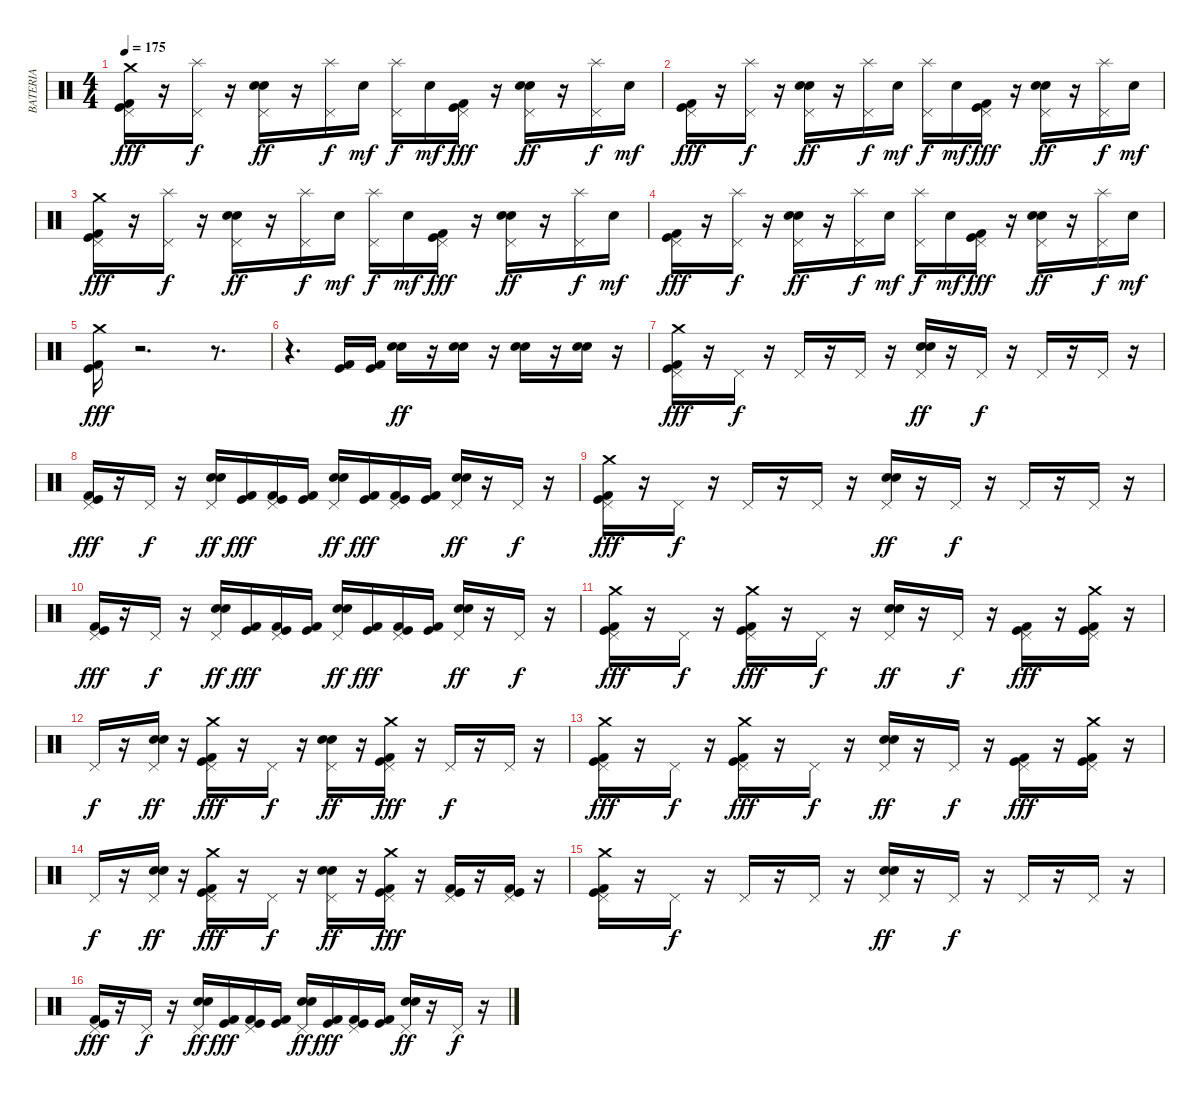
\track ("BATERIA" "BATERIA") {instrument percussion}
\staff {score}
\articulation defaults
\ts (4 4)
\tempo 175
\clef neutral
\ks c
("Pedal Hi-Hat (hit)" "Kick (hit)" "Kick (hit) 2" "Crash medium (hit)").16{dy fff} r.16 ("Pedal Hi-Hat (hit)" "Splash (hit)").16{dy f} r.16 ("Pedal Hi-Hat (hit)" "Snare (hit) 2" "Electric Snare (hit)").16{dy ff} r.16 ("Splash (hit)" "Pedal Hi-Hat (hit)").16{dy f} "Snare (hit) 2".16{dy mf} ("Splash (hit)" "Pedal Hi-Hat (hit)").16{dy f} "Snare (hit) 2".16{dy mf} ("Pedal Hi-Hat (hit)" "Kick (hit)" "Kick (hit) 2").16{dy fff} r.16 ("Pedal Hi-Hat (hit)" "Snare (hit) 2" "Electric Snare (hit)").16{dy ff} r.16 ("Splash (hit)" "Pedal Hi-Hat (hit)").16{dy f} "Snare (hit) 2".16{dy mf} |
("Pedal Hi-Hat (hit)" "Kick (hit)" "Kick (hit) 2").16{dy fff} r.16 ("Pedal Hi-Hat (hit)" "Splash (hit)").16{dy f} r.16 ("Pedal Hi-Hat (hit)" "Snare (hit) 2" "Electric Snare (hit)").16{dy ff} r.16 ("Splash (hit)" "Pedal Hi-Hat (hit)").16{dy f} "Snare (hit) 2".16{dy mf} ("Splash (hit)" "Pedal Hi-Hat (hit)").16{dy f} "Snare (hit) 2".16{dy mf} ("Pedal Hi-Hat (hit)" "Kick (hit)" "Kick (hit) 2").16{dy fff} r.16 ("Pedal Hi-Hat (hit)" "Snare (hit) 2" "Electric Snare (hit)").16{dy ff} r.16 ("Splash (hit)" "Pedal Hi-Hat (hit)").16{dy f} "Snare (hit) 2".16{dy mf} |
("Pedal Hi-Hat (hit)" "Kick (hit)" "Kick (hit) 2" "Crash medium (hit)").16{dy fff} r.16 ("Pedal Hi-Hat (hit)" "Splash (hit)").16{dy f} r.16 ("Pedal Hi-Hat (hit)" "Snare (hit) 2" "Electric Snare (hit)").16{dy ff} r.16 ("Splash (hit)" "Pedal Hi-Hat (hit)").16{dy f} "Snare (hit) 2".16{dy mf} ("Splash (hit)" "Pedal Hi-Hat (hit)").16{dy f} "Snare (hit) 2".16{dy mf} ("Pedal Hi-Hat (hit)" "Kick (hit)" "Kick (hit) 2").16{dy fff} r.16 ("Pedal Hi-Hat (hit)" "Snare (hit) 2" "Electric Snare (hit)").16{dy ff} r.16 ("Splash (hit)" "Pedal Hi-Hat (hit)").16{dy f} "Snare (hit) 2".16{dy mf} |
("Pedal Hi-Hat (hit)" "Kick (hit)" "Kick (hit) 2").16{dy fff} r.16 ("Pedal Hi-Hat (hit)" "Splash (hit)").16{dy f} r.16 ("Pedal Hi-Hat (hit)" "Snare (hit) 2" "Electric Snare (hit)").16{dy ff} r.16 ("Splash (hit)" "Pedal Hi-Hat (hit)").16{dy f} "Snare (hit) 2".16{dy mf} ("Splash (hit)" "Pedal Hi-Hat (hit)").16{dy f} "Snare (hit) 2".16{dy mf} ("Pedal Hi-Hat (hit)" "Kick (hit)" "Kick (hit) 2").16{dy fff} r.16 ("Pedal Hi-Hat (hit)" "Snare (hit) 2" "Electric Snare (hit)").16{dy ff} r.16 ("Splash (hit)" "Pedal Hi-Hat (hit)").16{dy f} "Snare (hit) 2".16{dy mf} |
("Crash medium (hit)" "Kick (hit)" "Kick (hit) 2").16{dy fff} r.2{d} r.8{d} |
r.4{d} ("Kick (hit)" "Kick (hit) 2").16 ("Kick (hit)" "Kick (hit) 2").16 ("Electric Snare (hit)" "Snare (hit) 2").16{dy ff} r.16 ("Electric Snare (hit)" "Snare (hit) 2").16 r.16 ("Electric Snare (hit)" "Snare (hit) 2").16 r.16 ("Electric Snare (hit)" "Snare (hit) 2").16 r.16 |
("Pedal Hi-Hat (hit)" "Kick (hit)" "Kick (hit) 2" "Crash medium (hit)").16{dy fff} r.16 "Pedal Hi-Hat (hit)".16{dy f} r.16 "Pedal Hi-Hat (hit)".16 r.16 "Pedal Hi-Hat (hit)".16 r.16 ("Electric Snare (hit)" "Snare (hit) 2" "Pedal Hi-Hat (hit)").16{dy ff} r.16 "Pedal Hi-Hat (hit)".16{dy f} r.16 "Pedal Hi-Hat (hit)".16 r.16 "Pedal Hi-Hat (hit)".16 r.16 |
("Kick (hit) 2" "Kick (hit)" "Pedal Hi-Hat (hit)").16{dy fff} r.16 "Pedal Hi-Hat (hit)".16{dy f} r.16 ("Electric Snare (hit)" "Snare (hit) 2" "Pedal Hi-Hat (hit)").16{dy ff} ("Kick (hit)" "Kick (hit) 2").16{dy fff} ("Kick (hit) 2" "Kick (hit)" "Pedal Hi-Hat (hit)").16 ("Kick (hit)" "Kick (hit) 2").16 ("Electric Snare (hit)" "Snare (hit) 2" "Pedal Hi-Hat (hit)").16{dy ff} ("Kick (hit)" "Kick (hit) 2").16{dy fff} ("Kick (hit) 2" "Kick (hit)" "Pedal Hi-Hat (hit)").16 ("Kick (hit)" "Kick (hit) 2").16 ("Electric Snare (hit)" "Snare (hit) 2" "Pedal Hi-Hat (hit)").16{dy ff} r.16 "Pedal Hi-Hat (hit)".16{dy f} r.16 |
("Pedal Hi-Hat (hit)" "Kick (hit)" "Kick (hit) 2" "Crash medium (hit)").16{dy fff} r.16 "Pedal Hi-Hat (hit)".16{dy f} r.16 "Pedal Hi-Hat (hit)".16 r.16 "Pedal Hi-Hat (hit)".16 r.16 ("Electric Snare (hit)" "Snare (hit) 2" "Pedal Hi-Hat (hit)").16{dy ff} r.16 "Pedal Hi-Hat (hit)".16{dy f} r.16 "Pedal Hi-Hat (hit)".16 r.16 "Pedal Hi-Hat (hit)".16 r.16 |
("Kick (hit) 2" "Kick (hit)" "Pedal Hi-Hat (hit)").16{dy fff} r.16 "Pedal Hi-Hat (hit)".16{dy f} r.16 ("Electric Snare (hit)" "Snare (hit) 2" "Pedal Hi-Hat (hit)").16{dy ff} ("Kick (hit)" "Kick (hit) 2").16{dy fff} ("Kick (hit) 2" "Kick (hit)" "Pedal Hi-Hat (hit)").16 ("Kick (hit)" "Kick (hit) 2").16 ("Electric Snare (hit)" "Snare (hit) 2" "Pedal Hi-Hat (hit)").16{dy ff} ("Kick (hit)" "Kick (hit) 2").16{dy fff} ("Kick (hit) 2" "Kick (hit)" "Pedal Hi-Hat (hit)").16 ("Kick (hit)" "Kick (hit) 2").16 ("Electric Snare (hit)" "Snare (hit) 2" "Pedal Hi-Hat (hit)").16{dy ff} r.16 "Pedal Hi-Hat (hit)".16{dy f} r.16 |
("Pedal Hi-Hat (hit)" "Kick (hit)" "Kick (hit) 2" "Crash medium (hit)").16{dy fff} r.16 "Pedal Hi-Hat (hit)".16{dy f} r.16 ("Crash medium (hit)" "Kick (hit) 2" "Kick (hit)" "Pedal Hi-Hat (hit)").16{dy fff} r.16 "Pedal Hi-Hat (hit)".16{dy f} r.16 ("Electric Snare (hit)" "Snare (hit) 2" "Pedal Hi-Hat (hit)").16{dy ff} r.16 "Pedal Hi-Hat (hit)".16{dy f} r.16 ("Pedal Hi-Hat (hit)" "Kick (hit)" "Kick (hit) 2").16{dy fff} r.16 ("Crash medium (hit)" "Kick (hit) 2" "Kick (hit)" "Pedal Hi-Hat (hit)").16 r.16 |
"Pedal Hi-Hat (hit)".16{dy f} r.16 ("Pedal Hi-Hat (hit)" "Snare (hit) 2" "Electric Snare (hit)").16{dy ff} r.16 ("Crash medium (hit)" "Kick (hit) 2" "Kick (hit)" "Pedal Hi-Hat (hit)").16{dy fff} r.16 "Pedal Hi-Hat (hit)".16{dy f} r.16 ("Pedal Hi-Hat (hit)" "Snare (hit) 2" "Electric Snare (hit)").16{dy ff} r.16 ("Pedal Hi-Hat (hit)" "Kick (hit)" "Kick (hit) 2" "Crash medium (hit)").16{dy fff} r.16 "Pedal Hi-Hat (hit)".16{dy f} r.16 "Pedal Hi-Hat (hit)".16 r.16 |
("Pedal Hi-Hat (hit)" "Kick (hit)" "Kick (hit) 2" "Crash medium (hit)").16{dy fff} r.16 "Pedal Hi-Hat (hit)".16{dy f} r.16 ("Crash medium (hit)" "Kick (hit) 2" "Kick (hit)" "Pedal Hi-Hat (hit)").16{dy fff} r.16 "Pedal Hi-Hat (hit)".16{dy f} r.16 ("Electric Snare (hit)" "Snare (hit) 2" "Pedal Hi-Hat (hit)").16{dy ff} r.16 "Pedal Hi-Hat (hit)".16{dy f} r.16 ("Pedal Hi-Hat (hit)" "Kick (hit)" "Kick (hit) 2").16{dy fff} r.16 ("Crash medium (hit)" "Kick (hit) 2" "Kick (hit)" "Pedal Hi-Hat (hit)").16 r.16 |
"Pedal Hi-Hat (hit)".16{dy f} r.16 ("Pedal Hi-Hat (hit)" "Snare (hit) 2" "Electric Snare (hit)").16{dy ff} r.16 ("Crash medium (hit)" "Kick (hit) 2" "Kick (hit)" "Pedal Hi-Hat (hit)").16{dy fff} r.16 "Pedal Hi-Hat (hit)".16{dy f} r.16 ("Pedal Hi-Hat (hit)" "Snare (hit) 2" "Electric Snare (hit)").16{dy ff} r.16 ("Pedal Hi-Hat (hit)" "Kick (hit)" "Kick (hit) 2" "Crash medium (hit)").16{dy fff} r.16 ("Pedal Hi-Hat (hit)" "Kick (hit)" "Kick (hit) 2").16 r.16 ("Kick (hit) 2" "Kick (hit)" "Pedal Hi-Hat (hit)").16 r.16 |
("Pedal Hi-Hat (hit)" "Kick (hit)" "Kick (hit) 2" "Crash medium (hit)").16 r.16 "Pedal Hi-Hat (hit)".16{dy f} r.16 "Pedal Hi-Hat (hit)".16 r.16 "Pedal Hi-Hat (hit)".16 r.16 ("Electric Snare (hit)" "Snare (hit) 2" "Pedal Hi-Hat (hit)").16{dy ff} r.16 "Pedal Hi-Hat (hit)".16{dy f} r.16 "Pedal Hi-Hat (hit)".16 r.16 "Pedal Hi-Hat (hit)".16 r.16 |
("Kick (hit) 2" "Kick (hit)" "Pedal Hi-Hat (hit)").16{dy fff} r.16 "Pedal Hi-Hat (hit)".16{dy f} r.16 ("Electric Snare (hit)" "Snare (hit) 2" "Pedal Hi-Hat (hit)").16{dy ff} ("Kick (hit)" "Kick (hit) 2").16{dy fff} ("Kick (hit) 2" "Kick (hit)" "Pedal Hi-Hat (hit)").16 ("Kick (hit)" "Kick (hit) 2").16 ("Electric Snare (hit)" "Snare (hit) 2" "Pedal Hi-Hat (hit)").16{dy ff} ("Kick (hit)" "Kick (hit) 2").16{dy fff} ("Kick (hit) 2" "Kick (hit)" "Pedal Hi-Hat (hit)").16 ("Kick (hit)" "Kick (hit) 2").16 ("Electric Snare (hit)" "Snare (hit) 2" "Pedal Hi-Hat (hit)").16{dy ff} r.16 "Pedal Hi-Hat (hit)".16{dy f} r.16
